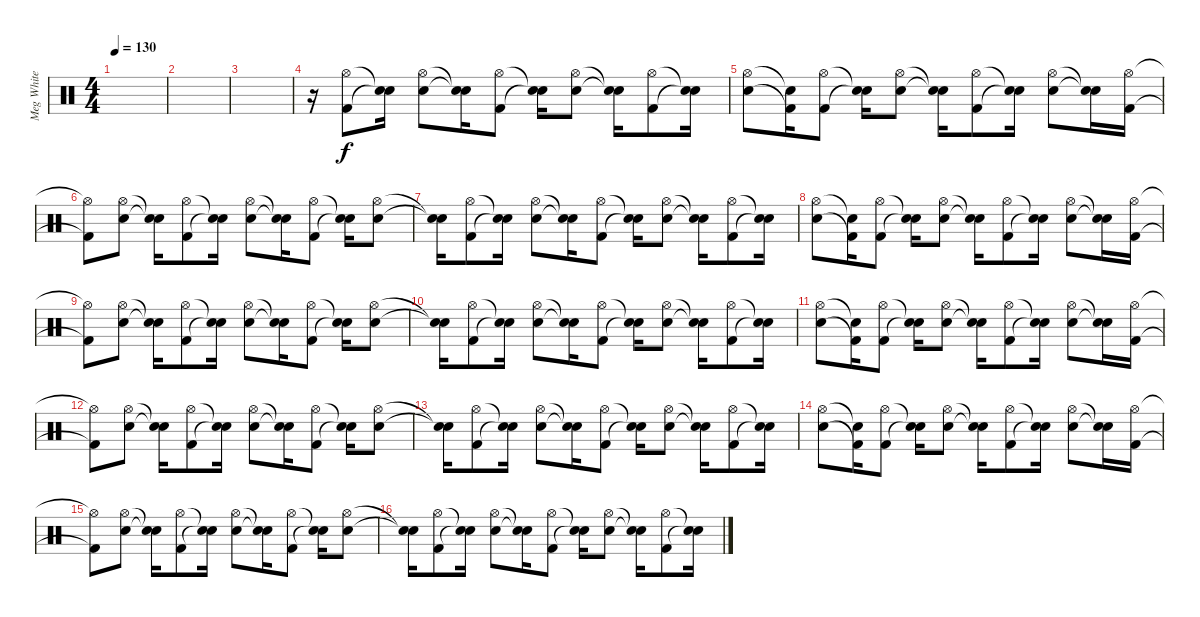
\track ("Meg White" "Meg White") {instrument percussion}
\staff {score}
\articulation defaults
\ts (4 4)
\tempo 130
\clef neutral
\ks c
|
|
|
r.16 ("Hi-Hat (open)" "Kick (hit) 2").8 ("Snare (hit)"{t} "Snare (hit)"{t}).16 ("Hi-Hat (open)" "Snare (hit) 2").8 ("Snare (hit)"{t} "Snare (hit)"{t}).16 ("Hi-Hat (open)" "Kick (hit) 2").8 ("Snare (hit)"{t} "Snare (hit)"{t}).16 ("Hi-Hat (open)" "Snare (hit) 2").8 ("Snare (hit)"{t} "Snare (hit)"{t}).16 ("Hi-Hat (open)" "Kick (hit) 2").8 ("Snare (hit)"{t} "Snare (hit)"{t}).16 |
("Hi-Hat (open)" "Snare (hit) 2").8 ("Snare (hit)"{t} "Kick (hit) 2"{t}).16 ("Hi-Hat (open)" "Kick (hit) 2").8 ("Snare (hit)"{t} "Snare (hit) 2"{t}).16 ("Hi-Hat (open)" "Snare (hit) 2").8 ("Snare (hit)"{t} "Snare (hit)"{t}).16 ("Hi-Hat (open)" "Kick (hit) 2").8 ("Snare (hit)"{t} "Snare (hit)"{t}).16 ("Hi-Hat (open)" "Snare (hit) 2").8 ("Snare (hit)"{t} "Snare (hit)"{t}).16 ("Hi-Hat (open)" "Kick (hit) 2").16 |
("Hi-Hat (open)"{t} "Kick (hit) 2"{t}).8 ("Hi-Hat (open)" "Snare (hit) 2").8 ("Snare (hit)"{t} "Snare (hit)"{t}).16 ("Hi-Hat (open)" "Kick (hit) 2").8 ("Snare (hit)"{t} "Snare (hit)"{t}).16 ("Hi-Hat (open)" "Snare (hit) 2").8 ("Snare (hit)"{t} "Snare (hit)"{t}).16 ("Hi-Hat (open)" "Kick (hit) 2").8 ("Snare (hit)"{t} "Snare (hit)"{t}).16 ("Hi-Hat (open)" "Snare (hit) 2").8 |
("Snare (hit)"{t} "Snare (hit)"{t}).16 ("Hi-Hat (open)" "Kick (hit) 2").8 ("Snare (hit)"{t} "Snare (hit)"{t}).16 ("Hi-Hat (open)" "Snare (hit) 2").8 ("Snare (hit)"{t} "Snare (hit)"{t}).16 ("Hi-Hat (open)" "Kick (hit) 2").8 ("Snare (hit)"{t} "Snare (hit)"{t}).16 ("Hi-Hat (open)" "Snare (hit) 2").8 ("Snare (hit)"{t} "Snare (hit)"{t}).16 ("Hi-Hat (open)" "Kick (hit) 2").8 ("Snare (hit)"{t} "Snare (hit)"{t}).16 |
("Hi-Hat (open)" "Snare (hit) 2").8 ("Snare (hit)"{t} "Kick (hit) 2"{t}).16 ("Hi-Hat (open)" "Kick (hit) 2").8 ("Snare (hit)"{t} "Snare (hit) 2"{t}).16 ("Hi-Hat (open)" "Snare (hit) 2").8 ("Snare (hit)"{t} "Snare (hit)"{t}).16 ("Hi-Hat (open)" "Kick (hit) 2").8 ("Snare (hit)"{t} "Snare (hit)"{t}).16 ("Hi-Hat (open)" "Snare (hit) 2").8 ("Snare (hit)"{t} "Snare (hit)"{t}).16 ("Hi-Hat (open)" "Kick (hit) 2").16 |
("Hi-Hat (open)"{t} "Kick (hit) 2"{t}).8 ("Hi-Hat (open)" "Snare (hit) 2").8 ("Snare (hit)"{t} "Snare (hit)"{t}).16 ("Hi-Hat (open)" "Kick (hit) 2").8 ("Snare (hit)"{t} "Snare (hit)"{t}).16 ("Hi-Hat (open)" "Snare (hit) 2").8 ("Snare (hit)"{t} "Snare (hit)"{t}).16 ("Hi-Hat (open)" "Kick (hit) 2").8 ("Snare (hit)"{t} "Snare (hit)"{t}).16 ("Hi-Hat (open)" "Snare (hit) 2").8 |
("Snare (hit)"{t} "Snare (hit)"{t}).16 ("Hi-Hat (open)" "Kick (hit) 2").8 ("Snare (hit)"{t} "Snare (hit)"{t}).16 ("Hi-Hat (open)" "Snare (hit) 2").8 ("Snare (hit)"{t} "Snare (hit)"{t}).16 ("Hi-Hat (open)" "Kick (hit) 2").8 ("Snare (hit)"{t} "Snare (hit)"{t}).16 ("Hi-Hat (open)" "Snare (hit) 2").8 ("Snare (hit)"{t} "Snare (hit)"{t}).16 ("Hi-Hat (open)" "Kick (hit) 2").8 ("Snare (hit)"{t} "Snare (hit)"{t}).16 |
("Hi-Hat (open)" "Snare (hit) 2").8 ("Snare (hit)"{t} "Kick (hit) 2"{t}).16 ("Hi-Hat (open)" "Kick (hit) 2").8 ("Snare (hit)"{t} "Snare (hit) 2"{t}).16 ("Hi-Hat (open)" "Snare (hit) 2").8 ("Snare (hit)"{t} "Snare (hit)"{t}).16 ("Hi-Hat (open)" "Kick (hit) 2").8 ("Snare (hit)"{t} "Snare (hit)"{t}).16 ("Hi-Hat (open)" "Snare (hit) 2").8 ("Snare (hit)"{t} "Snare (hit)"{t}).16 ("Hi-Hat (open)" "Kick (hit) 2").16 |
("Hi-Hat (open)"{t} "Kick (hit) 2"{t}).8 ("Hi-Hat (open)" "Snare (hit) 2").8 ("Snare (hit)"{t} "Snare (hit)"{t}).16 ("Hi-Hat (open)" "Kick (hit) 2").8 ("Snare (hit)"{t} "Snare (hit)"{t}).16 ("Hi-Hat (open)" "Snare (hit) 2").8 ("Snare (hit)"{t} "Snare (hit)"{t}).16 ("Hi-Hat (open)" "Kick (hit) 2").8 ("Snare (hit)"{t} "Snare (hit)"{t}).16 ("Hi-Hat (open)" "Snare (hit) 2").8 |
("Snare (hit)"{t} "Snare (hit)"{t}).16 ("Hi-Hat (open)" "Kick (hit) 2").8 ("Snare (hit)"{t} "Snare (hit)"{t}).16 ("Hi-Hat (open)" "Snare (hit) 2").8 ("Snare (hit)"{t} "Snare (hit)"{t}).16 ("Hi-Hat (open)" "Kick (hit) 2").8 ("Snare (hit)"{t} "Snare (hit)"{t}).16 ("Hi-Hat (open)" "Snare (hit) 2").8 ("Snare (hit)"{t} "Snare (hit)"{t}).16 ("Hi-Hat (open)" "Kick (hit) 2").8 ("Snare (hit)"{t} "Snare (hit)"{t}).16 |
("Hi-Hat (open)" "Snare (hit) 2").8 ("Snare (hit)"{t} "Kick (hit) 2"{t}).16 ("Hi-Hat (open)" "Kick (hit) 2").8 ("Snare (hit)"{t} "Snare (hit) 2"{t}).16 ("Hi-Hat (open)" "Snare (hit) 2").8 ("Snare (hit)"{t} "Snare (hit)"{t}).16 ("Hi-Hat (open)" "Kick (hit) 2").8 ("Snare (hit)"{t} "Snare (hit)"{t}).16 ("Hi-Hat (open)" "Snare (hit) 2").8 ("Snare (hit)"{t} "Snare (hit)"{t}).16 ("Hi-Hat (open)" "Kick (hit) 2").16 |
("Hi-Hat (open)"{t} "Kick (hit) 2"{t}).8 ("Hi-Hat (open)" "Snare (hit) 2").8 ("Snare (hit)"{t} "Snare (hit)"{t}).16 ("Hi-Hat (open)" "Kick (hit) 2").8 ("Snare (hit)"{t} "Snare (hit)"{t}).16 ("Hi-Hat (open)" "Snare (hit) 2").8 ("Snare (hit)"{t} "Snare (hit)"{t}).16 ("Hi-Hat (open)" "Kick (hit) 2").8 ("Snare (hit)"{t} "Snare (hit)"{t}).16 ("Hi-Hat (open)" "Snare (hit) 2").8 |
("Snare (hit)"{t} "Snare (hit)"{t}).16 ("Hi-Hat (open)" "Kick (hit) 2").8 ("Snare (hit)"{t} "Snare (hit)"{t}).16 ("Hi-Hat (open)" "Snare (hit) 2").8 ("Snare (hit)"{t} "Snare (hit)"{t}).16 ("Hi-Hat (open)" "Kick (hit) 2").8 ("Snare (hit)"{t} "Snare (hit)"{t}).16 ("Hi-Hat (open)" "Snare (hit) 2").8 ("Snare (hit)"{t} "Snare (hit)"{t}).16 ("Hi-Hat (open)" "Kick (hit) 2").8 ("Snare (hit)"{t} "Snare (hit)"{t}).16
